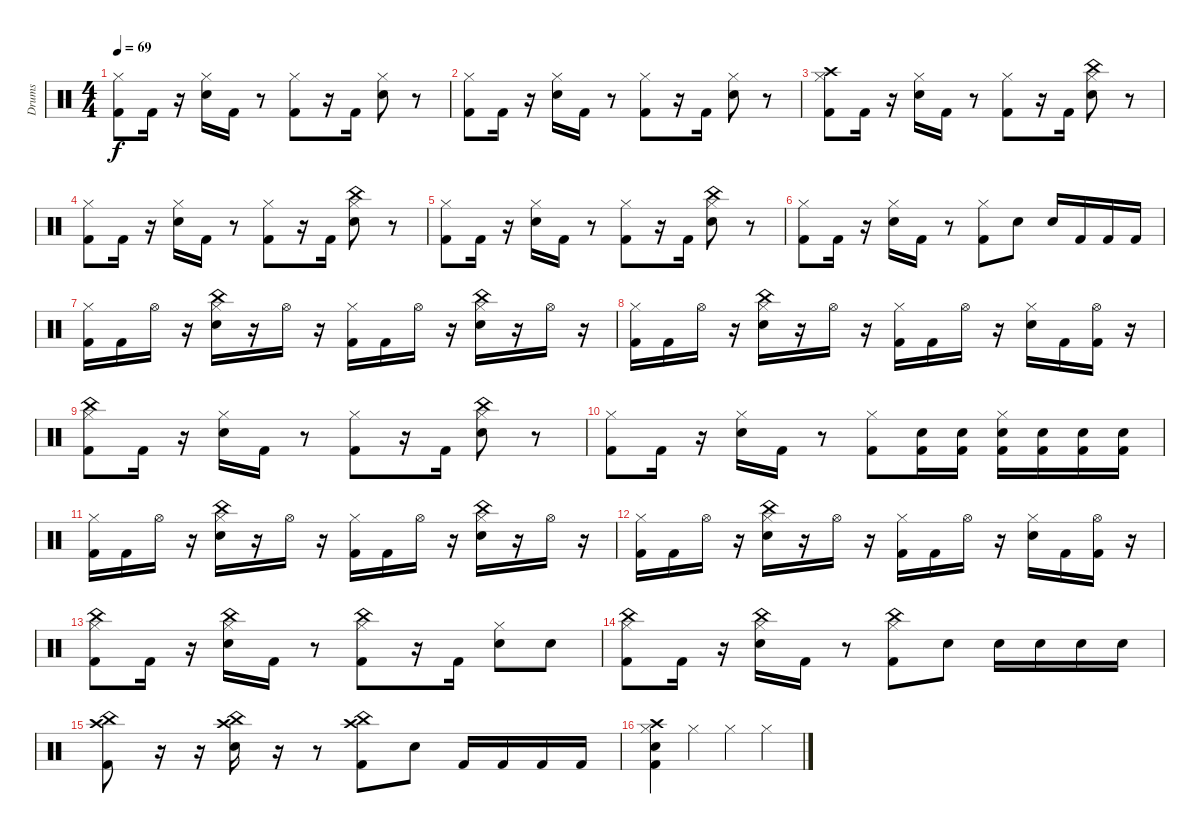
\track ("Drums" "Drums") {instrument percussion}
\staff {score}
\articulation defaults
\ts (4 4)
\tempo 69
\clef neutral
\ks c
("Hi-Hat (closed)" "Kick (hit) 2").8{dy f} "Kick (hit) 2".16 r.16 ("Hi-Hat (closed)" "Snare (hit) 2").16 "Kick (hit) 2".16 r.8 ("Hi-Hat (closed)" "Kick (hit) 2").8 r.16 "Kick (hit) 2".16 ("Hi-Hat (closed)" "Snare (hit) 2").8 r.8 |
("Hi-Hat (closed)" "Kick (hit) 2").8 "Kick (hit) 2".16 r.16 ("Hi-Hat (closed)" "Snare (hit) 2").16 "Kick (hit) 2".16 r.8 ("Hi-Hat (closed)" "Kick (hit) 2").8 r.16 "Kick (hit) 2".16 ("Hi-Hat (closed)" "Snare (hit) 2").8 r.8 |
("Hi-Hat (closed)" "Kick (hit) 2" "Crash high (hit)").8 "Kick (hit) 2".16 r.16 ("Hi-Hat (closed)" "Snare (hit) 2").16 "Kick (hit) 2".16 r.8 ("Hi-Hat (closed)" "Kick (hit) 2").8 r.16 "Kick (hit) 2".16 ("Hi-Hat (closed)" "Snare (hit) 2" "China (hit)").8 r.8 |
("Hi-Hat (closed)" "Kick (hit) 2").8 "Kick (hit) 2".16 r.16 ("Hi-Hat (closed)" "Snare (hit) 2").16 "Kick (hit) 2".16 r.8 ("Hi-Hat (closed)" "Kick (hit) 2").8 r.16 "Kick (hit) 2".16 ("Hi-Hat (closed)" "Snare (hit) 2" "China (hit)").8 r.8 |
("Hi-Hat (closed)" "Kick (hit) 2").8 "Kick (hit) 2".16 r.16 ("Hi-Hat (closed)" "Snare (hit) 2").16 "Kick (hit) 2".16 r.8 ("Hi-Hat (closed)" "Kick (hit) 2").8 r.16 "Kick (hit) 2".16 ("Hi-Hat (closed)" "Snare (hit) 2" "China (hit)").8 r.8 |
("Hi-Hat (closed)" "Kick (hit) 2").8 "Kick (hit) 2".16 r.16 ("Hi-Hat (closed)" "Snare (hit) 2").16 "Kick (hit) 2".16 r.8 ("Hi-Hat (closed)" "Kick (hit) 2").8 "Snare (hit) 2".8 "Snare (hit) 2".16 "Kick (hit) 2".16 "Kick (hit) 2".16 "Kick (hit) 2".16 |
("Hi-Hat (closed)" "Kick (hit) 2").16 "Kick (hit) 2".16 "Hi-Hat (open)".16 r.16 ("Hi-Hat (closed)" "Snare (hit) 2" "China (hit)").16 r.16 "Hi-Hat (open)".16 r.16 ("Hi-Hat (closed)" "Kick (hit) 2").16 "Kick (hit) 2".16 "Hi-Hat (open)".16 r.16 ("Hi-Hat (closed)" "Snare (hit) 2" "China (hit)").16 r.16 "Hi-Hat (open)".16 r.16 |
("Hi-Hat (closed)" "Kick (hit) 2").16 "Kick (hit) 2".16 "Hi-Hat (open)".16 r.16 ("Hi-Hat (closed)" "Snare (hit) 2" "China (hit)").16 r.16 "Hi-Hat (open)".16 r.16 ("Hi-Hat (closed)" "Kick (hit) 2").16 "Kick (hit) 2".16 "Hi-Hat (open)".16 r.16 ("Hi-Hat (closed)" "Snare (hit) 2").16 "Kick (hit) 2".16 ("Hi-Hat (open)" "Kick (hit) 2").16 r.16 |
("Hi-Hat (closed)" "Kick (hit) 2" "China (hit)").8 "Kick (hit) 2".16 r.16 ("Hi-Hat (closed)" "Snare (hit) 2").16 "Kick (hit) 2".16 r.8 ("Hi-Hat (closed)" "Kick (hit) 2").8 r.16 "Kick (hit) 2".16 ("Hi-Hat (closed)" "Snare (hit) 2" "China (hit)").8 r.8 |
("Hi-Hat (closed)" "Kick (hit) 2").8 "Kick (hit) 2".16 r.16 ("Hi-Hat (closed)" "Snare (hit) 2").16 "Kick (hit) 2".16 r.8 ("Hi-Hat (closed)" "Kick (hit) 2").8 ("Kick (hit) 2" "Snare (hit) 2").16 ("Kick (hit) 2" "Snare (hit) 2").16 ("Hi-Hat (closed)" "Kick (hit) 2" "Snare (hit) 2").16 ("Kick (hit) 2" "Snare (hit) 2").16 ("Kick (hit) 2" "Snare (hit) 2").16 ("Kick (hit) 2" "Snare (hit) 2").16 |
("Hi-Hat (closed)" "Kick (hit) 2").16 "Kick (hit) 2".16 "Hi-Hat (open)".16 r.16 ("Hi-Hat (closed)" "Snare (hit) 2" "China (hit)").16 r.16 "Hi-Hat (open)".16 r.16 ("Hi-Hat (closed)" "Kick (hit) 2").16 "Kick (hit) 2".16 "Hi-Hat (open)".16 r.16 ("Hi-Hat (closed)" "Snare (hit) 2" "China (hit)").16 r.16 "Hi-Hat (open)".16 r.16 |
("Hi-Hat (closed)" "Kick (hit) 2").16 "Kick (hit) 2".16 "Hi-Hat (open)".16 r.16 ("Hi-Hat (closed)" "Snare (hit) 2" "China (hit)").16 r.16 "Hi-Hat (open)".16 r.16 ("Hi-Hat (closed)" "Kick (hit) 2").16 "Kick (hit) 2".16 "Hi-Hat (open)".16 r.16 ("Hi-Hat (closed)" "Snare (hit) 2").16 "Kick (hit) 2".16 ("Hi-Hat (open)" "Kick (hit) 2").16 r.16 |
("Hi-Hat (closed)" "Kick (hit) 2" "China (hit)").8 "Kick (hit) 2".16 r.16 ("Hi-Hat (closed)" "Snare (hit) 2" "China (hit)").16 "Kick (hit) 2".16 r.8 ("Hi-Hat (closed)" "Kick (hit) 2" "China (hit)").8 r.16 "Kick (hit) 2".16 ("Hi-Hat (closed)" "Snare (hit) 2").8 "Snare (hit) 2".8 |
("Hi-Hat (closed)" "Kick (hit) 2" "China (hit)").8 "Kick (hit) 2".16 r.16 ("Hi-Hat (closed)" "Snare (hit) 2" "China (hit)").16 "Kick (hit) 2".16 r.8 ("Hi-Hat (closed)" "Kick (hit) 2" "China (hit)").8 "Snare (hit) 2".8 "Snare (hit) 2".16 "Snare (hit) 2".16 "Snare (hit) 2".16 "Snare (hit) 2".16 |
("Crash high (hit)" "Kick (hit) 2" "China (hit)").8 r.16 r.16 ("Crash high (hit)" "Snare (hit) 2" "China (hit)").16 r.16 r.8 ("Crash high (hit)" "Kick (hit) 2" "China (hit)").8 "Snare (hit) 2".8 "Kick (hit) 2".16 "Kick (hit) 2".16 "Kick (hit) 2".16 "Kick (hit) 2".16 |
("Hi-Hat (closed)" "Crash high (hit)" "Kick (hit) 2" "Snare (hit) 2").4 "Hi-Hat (closed)".4 "Hi-Hat (closed)".4 "Hi-Hat (closed)".4
